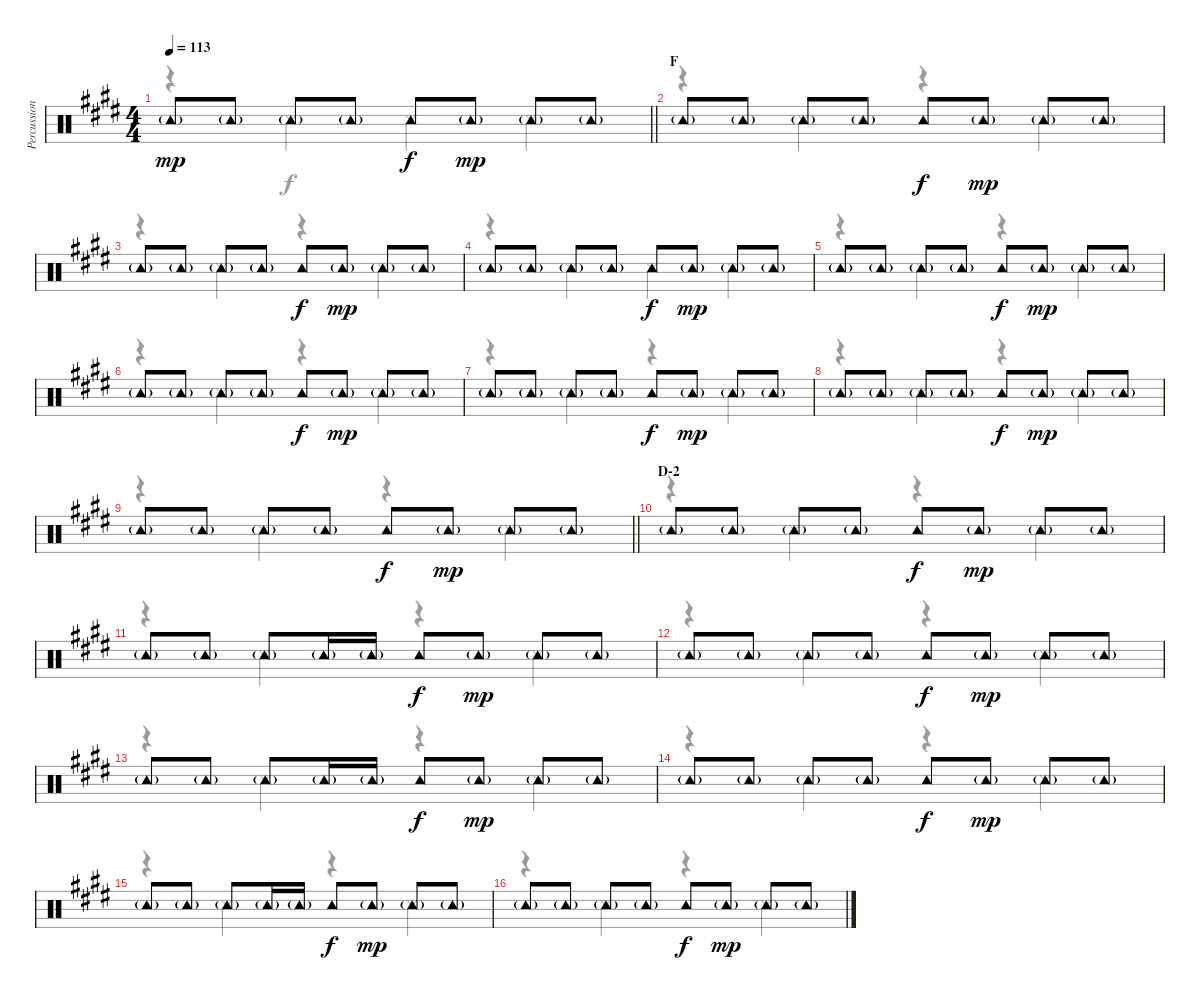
\track ("Percussion" "Percussion") {instrument percussion}
\staff {score}
\articulation defaults
\voice
\ts (4 4)
\tempo 113
\clef neutral
\barLineRight lightlight
\ks e "Tambourine (hit)"{g}.8{dy mp} "Tambourine (hit)"{g}.8 "Tambourine (hit)"{g}.8 "Tambourine (hit)"{g}.8 "Tambourine (hit)".8{dy f} "Tambourine (hit)"{g}.8{dy mp} "Tambourine (hit)"{g}.8 "Tambourine (hit)"{g}.8
|
\section ("" "F")
"Tambourine (hit)"{g}.8 "Tambourine (hit)"{g}.8 "Tambourine (hit)"{g}.8 "Tambourine (hit)"{g}.8 "Tambourine (hit)".8{dy f} "Tambourine (hit)"{g}.8{dy mp} "Tambourine (hit)"{g}.8 "Tambourine (hit)"{g}.8 |
"Tambourine (hit)"{g}.8 "Tambourine (hit)"{g}.8 "Tambourine (hit)"{g}.8 "Tambourine (hit)"{g}.8 "Tambourine (hit)".8{dy f} "Tambourine (hit)"{g}.8{dy mp} "Tambourine (hit)"{g}.8 "Tambourine (hit)"{g}.8 |
"Tambourine (hit)"{g}.8 "Tambourine (hit)"{g}.8 "Tambourine (hit)"{g}.8 "Tambourine (hit)"{g}.8 "Tambourine (hit)".8{dy f} "Tambourine (hit)"{g}.8{dy mp} "Tambourine (hit)"{g}.8 "Tambourine (hit)"{g}.8 |
"Tambourine (hit)"{g}.8 "Tambourine (hit)"{g}.8 "Tambourine (hit)"{g}.8 "Tambourine (hit)"{g}.8 "Tambourine (hit)".8{dy f} "Tambourine (hit)"{g}.8{dy mp} "Tambourine (hit)"{g}.8 "Tambourine (hit)"{g}.8 |
"Tambourine (hit)"{g}.8 "Tambourine (hit)"{g}.8 "Tambourine (hit)"{g}.8 "Tambourine (hit)"{g}.8 "Tambourine (hit)".8{dy f} "Tambourine (hit)"{g}.8{dy mp} "Tambourine (hit)"{g}.8 "Tambourine (hit)"{g}.8 |
"Tambourine (hit)"{g}.8 "Tambourine (hit)"{g}.8 "Tambourine (hit)"{g}.8 "Tambourine (hit)"{g}.8 "Tambourine (hit)".8{dy f} "Tambourine (hit)"{g}.8{dy mp} "Tambourine (hit)"{g}.8 "Tambourine (hit)"{g}.8 |
"Tambourine (hit)"{g}.8 "Tambourine (hit)"{g}.8 "Tambourine (hit)"{g}.8 "Tambourine (hit)"{g}.8 "Tambourine (hit)".8{dy f} "Tambourine (hit)"{g}.8{dy mp} "Tambourine (hit)"{g}.8 "Tambourine (hit)"{g}.8 |
\barLineRight lightlight "Tambourine (hit)"{g}.8 "Tambourine (hit)"{g}.8 "Tambourine (hit)"{g}.8 "Tambourine (hit)"{g}.8 "Tambourine (hit)".8{dy f} "Tambourine (hit)"{g}.8{dy mp} "Tambourine (hit)"{g}.8 "Tambourine (hit)"{g}.8
|
\section ("" "D-2")
"Tambourine (hit)"{g}.8 "Tambourine (hit)"{g}.8 "Tambourine (hit)"{g}.8 "Tambourine (hit)"{g}.8 "Tambourine (hit)".8{dy f} "Tambourine (hit)"{g}.8{dy mp} "Tambourine (hit)"{g}.8 "Tambourine (hit)"{g}.8 |
"Tambourine (hit)"{g}.8 "Tambourine (hit)"{g}.8 "Tambourine (hit)"{g}.8 "Tambourine (hit)"{g}.16 "Tambourine (hit)"{g}.16 "Tambourine (hit)".8{dy f} "Tambourine (hit)"{g}.8{dy mp} "Tambourine (hit)"{g}.8 "Tambourine (hit)"{g}.8 |
"Tambourine (hit)"{g}.8 "Tambourine (hit)"{g}.8 "Tambourine (hit)"{g}.8 "Tambourine (hit)"{g}.8 "Tambourine (hit)".8{dy f} "Tambourine (hit)"{g}.8{dy mp} "Tambourine (hit)"{g}.8 "Tambourine (hit)"{g}.8 |
"Tambourine (hit)"{g}.8 "Tambourine (hit)"{g}.8 "Tambourine (hit)"{g}.8 "Tambourine (hit)"{g}.16 "Tambourine (hit)"{g}.16 "Tambourine (hit)".8{dy f} "Tambourine (hit)"{g}.8{dy mp} "Tambourine (hit)"{g}.8 "Tambourine (hit)"{g}.8 |
"Tambourine (hit)"{g}.8 "Tambourine (hit)"{g}.8 "Tambourine (hit)"{g}.8 "Tambourine (hit)"{g}.8 "Tambourine (hit)".8{dy f} "Tambourine (hit)"{g}.8{dy mp} "Tambourine (hit)"{g}.8 "Tambourine (hit)"{g}.8 |
"Tambourine (hit)"{g}.8 "Tambourine (hit)"{g}.8 "Tambourine (hit)"{g}.8 "Tambourine (hit)"{g}.16 "Tambourine (hit)"{g}.16 "Tambourine (hit)".8{dy f} "Tambourine (hit)"{g}.8{dy mp} "Tambourine (hit)"{g}.8 "Tambourine (hit)"{g}.8 |
"Tambourine (hit)"{g}.8 "Tambourine (hit)"{g}.8 "Tambourine (hit)"{g}.8 "Tambourine (hit)"{g}.8 "Tambourine (hit)".8{dy f} "Tambourine (hit)"{g}.8{dy mp} "Tambourine (hit)"{g}.8 "Tambourine (hit)"{g}.8
\voice
\clef neutral
\ottava regular
\simile none
\barLineRight lightlight
\ks e
r.4{dy f} "Snare (side stick) 3".4 "Snare (side stick) 3".4 "Snare (side stick) 3".4 |
r.4 "Snare (side stick) 3".4 r.4 "Snare (side stick) 3".4 |
r.4 "Snare (side stick) 3".4 r.4 "Snare (side stick) 3".4 |
r.4 "Snare (side stick) 3".4 "Snare (side stick) 3".4 "Snare (side stick) 3".4 |
r.4 "Snare (side stick) 3".4 r.4 "Snare (side stick) 3".4 |
r.4 "Snare (side stick) 3".4 r.4 "Snare (side stick) 3".4 |
r.4 "Snare (side stick) 3".4 r.4 "Snare (side stick) 3".4 |
r.4 "Snare (side stick) 3".4 r.4 "Snare (side stick) 3".4 |
\barLineRight lightlight
r.4 "Snare (side stick) 3".4 r.4 "Snare (side stick) 3".4 |
r.4 "Snare (side stick) 3".4 r.4 "Snare (side stick) 3".4 |
r.4 "Snare (side stick) 3".4 r.4 "Snare (side stick) 3".4 |
r.4 "Snare (side stick) 3".4 r.4 "Snare (side stick) 3".4 |
r.4 "Snare (side stick) 3".4 r.4 "Snare (side stick) 3".4 |
r.4 "Snare (side stick) 3".4 r.4 "Snare (side stick) 3".4 |
r.4 "Snare (side stick) 3".4 r.4 "Snare (side stick) 3".4 |
r.4 "Snare (side stick) 3".4 r.4 "Snare (side stick) 3".4
